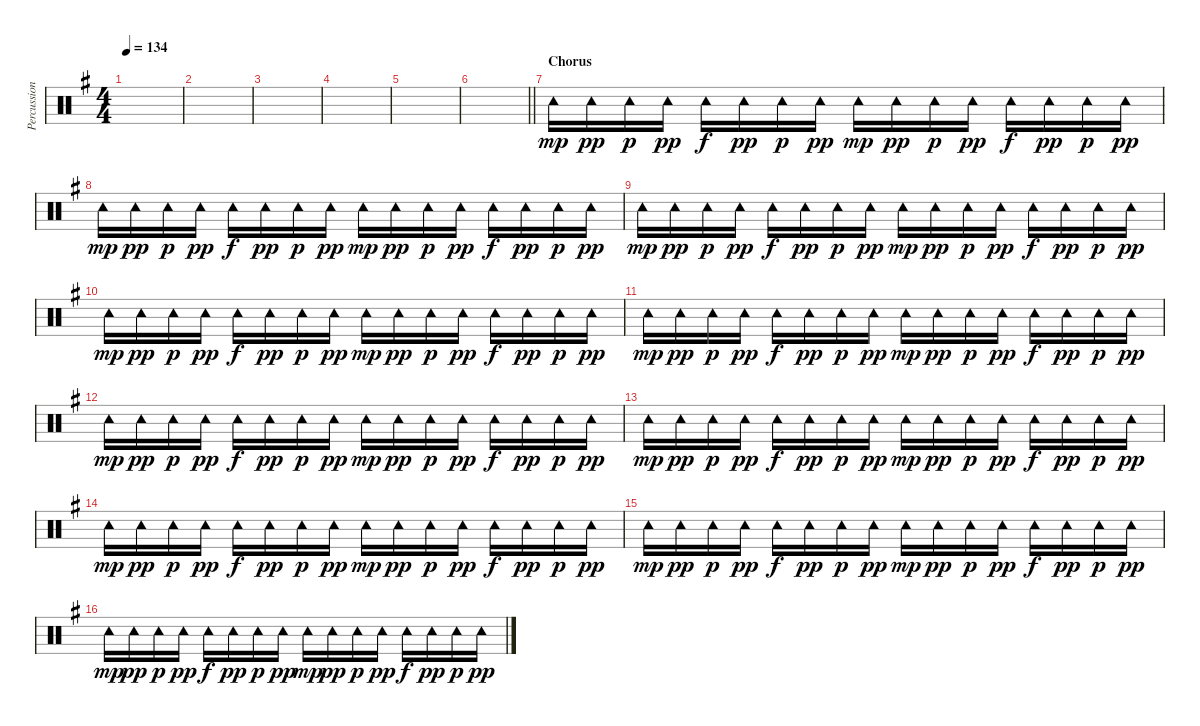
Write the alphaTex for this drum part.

\track ("Percussion" "Percussion") {instrument percussion}
\staff {score}
\articulation defaults
\ts (4 4)
\tempo 134
\clef neutral
\ks eminor
|
|
|
|
|
\barLineRight lightlight
|
\section ("" "Chorus")
"Tambourine (hit)".16{dy mp} "Tambourine (hit)".16{dy pp} "Tambourine (hit)".16{dy p} "Tambourine (hit)".16{dy pp} "Tambourine (hit)".16{dy f} "Tambourine (hit)".16{dy pp} "Tambourine (hit)".16{dy p} "Tambourine (hit)".16{dy pp} "Tambourine (hit)".16{dy mp} "Tambourine (hit)".16{dy pp} "Tambourine (hit)".16{dy p} "Tambourine (hit)".16{dy pp} "Tambourine (hit)".16{dy f} "Tambourine (hit)".16{dy pp} "Tambourine (hit)".16{dy p} "Tambourine (hit)".16{dy pp} |
"Tambourine (hit)".16{dy mp} "Tambourine (hit)".16{dy pp} "Tambourine (hit)".16{dy p} "Tambourine (hit)".16{dy pp} "Tambourine (hit)".16{dy f} "Tambourine (hit)".16{dy pp} "Tambourine (hit)".16{dy p} "Tambourine (hit)".16{dy pp} "Tambourine (hit)".16{dy mp} "Tambourine (hit)".16{dy pp} "Tambourine (hit)".16{dy p} "Tambourine (hit)".16{dy pp} "Tambourine (hit)".16{dy f} "Tambourine (hit)".16{dy pp} "Tambourine (hit)".16{dy p} "Tambourine (hit)".16{dy pp} |
"Tambourine (hit)".16{dy mp} "Tambourine (hit)".16{dy pp} "Tambourine (hit)".16{dy p} "Tambourine (hit)".16{dy pp} "Tambourine (hit)".16{dy f} "Tambourine (hit)".16{dy pp} "Tambourine (hit)".16{dy p} "Tambourine (hit)".16{dy pp} "Tambourine (hit)".16{dy mp} "Tambourine (hit)".16{dy pp} "Tambourine (hit)".16{dy p} "Tambourine (hit)".16{dy pp} "Tambourine (hit)".16{dy f} "Tambourine (hit)".16{dy pp} "Tambourine (hit)".16{dy p} "Tambourine (hit)".16{dy pp} |
"Tambourine (hit)".16{dy mp} "Tambourine (hit)".16{dy pp} "Tambourine (hit)".16{dy p} "Tambourine (hit)".16{dy pp} "Tambourine (hit)".16{dy f} "Tambourine (hit)".16{dy pp} "Tambourine (hit)".16{dy p} "Tambourine (hit)".16{dy pp} "Tambourine (hit)".16{dy mp} "Tambourine (hit)".16{dy pp} "Tambourine (hit)".16{dy p} "Tambourine (hit)".16{dy pp} "Tambourine (hit)".16{dy f} "Tambourine (hit)".16{dy pp} "Tambourine (hit)".16{dy p} "Tambourine (hit)".16{dy pp} |
"Tambourine (hit)".16{dy mp} "Tambourine (hit)".16{dy pp} "Tambourine (hit)".16{dy p} "Tambourine (hit)".16{dy pp} "Tambourine (hit)".16{dy f} "Tambourine (hit)".16{dy pp} "Tambourine (hit)".16{dy p} "Tambourine (hit)".16{dy pp} "Tambourine (hit)".16{dy mp} "Tambourine (hit)".16{dy pp} "Tambourine (hit)".16{dy p} "Tambourine (hit)".16{dy pp} "Tambourine (hit)".16{dy f} "Tambourine (hit)".16{dy pp} "Tambourine (hit)".16{dy p} "Tambourine (hit)".16{dy pp} |
"Tambourine (hit)".16{dy mp} "Tambourine (hit)".16{dy pp} "Tambourine (hit)".16{dy p} "Tambourine (hit)".16{dy pp} "Tambourine (hit)".16{dy f} "Tambourine (hit)".16{dy pp} "Tambourine (hit)".16{dy p} "Tambourine (hit)".16{dy pp} "Tambourine (hit)".16{dy mp} "Tambourine (hit)".16{dy pp} "Tambourine (hit)".16{dy p} "Tambourine (hit)".16{dy pp} "Tambourine (hit)".16{dy f} "Tambourine (hit)".16{dy pp} "Tambourine (hit)".16{dy p} "Tambourine (hit)".16{dy pp} |
"Tambourine (hit)".16{dy mp} "Tambourine (hit)".16{dy pp} "Tambourine (hit)".16{dy p} "Tambourine (hit)".16{dy pp} "Tambourine (hit)".16{dy f} "Tambourine (hit)".16{dy pp} "Tambourine (hit)".16{dy p} "Tambourine (hit)".16{dy pp} "Tambourine (hit)".16{dy mp} "Tambourine (hit)".16{dy pp} "Tambourine (hit)".16{dy p} "Tambourine (hit)".16{dy pp} "Tambourine (hit)".16{dy f} "Tambourine (hit)".16{dy pp} "Tambourine (hit)".16{dy p} "Tambourine (hit)".16{dy pp} |
"Tambourine (hit)".16{dy mp} "Tambourine (hit)".16{dy pp} "Tambourine (hit)".16{dy p} "Tambourine (hit)".16{dy pp} "Tambourine (hit)".16{dy f} "Tambourine (hit)".16{dy pp} "Tambourine (hit)".16{dy p} "Tambourine (hit)".16{dy pp} "Tambourine (hit)".16{dy mp} "Tambourine (hit)".16{dy pp} "Tambourine (hit)".16{dy p} "Tambourine (hit)".16{dy pp} "Tambourine (hit)".16{dy f} "Tambourine (hit)".16{dy pp} "Tambourine (hit)".16{dy p} "Tambourine (hit)".16{dy pp} |
"Tambourine (hit)".16{dy mp} "Tambourine (hit)".16{dy pp} "Tambourine (hit)".16{dy p} "Tambourine (hit)".16{dy pp} "Tambourine (hit)".16{dy f} "Tambourine (hit)".16{dy pp} "Tambourine (hit)".16{dy p} "Tambourine (hit)".16{dy pp} "Tambourine (hit)".16{dy mp} "Tambourine (hit)".16{dy pp} "Tambourine (hit)".16{dy p} "Tambourine (hit)".16{dy pp} "Tambourine (hit)".16{dy f} "Tambourine (hit)".16{dy pp} "Tambourine (hit)".16{dy p} "Tambourine (hit)".16{dy pp} |
"Tambourine (hit)".16{dy mp} "Tambourine (hit)".16{dy pp} "Tambourine (hit)".16{dy p} "Tambourine (hit)".16{dy pp} "Tambourine (hit)".16{dy f} "Tambourine (hit)".16{dy pp} "Tambourine (hit)".16{dy p} "Tambourine (hit)".16{dy pp} "Tambourine (hit)".16{dy mp} "Tambourine (hit)".16{dy pp} "Tambourine (hit)".16{dy p} "Tambourine (hit)".16{dy pp} "Tambourine (hit)".16{dy f} "Tambourine (hit)".16{dy pp} "Tambourine (hit)".16{dy p} "Tambourine (hit)".16{dy pp}
